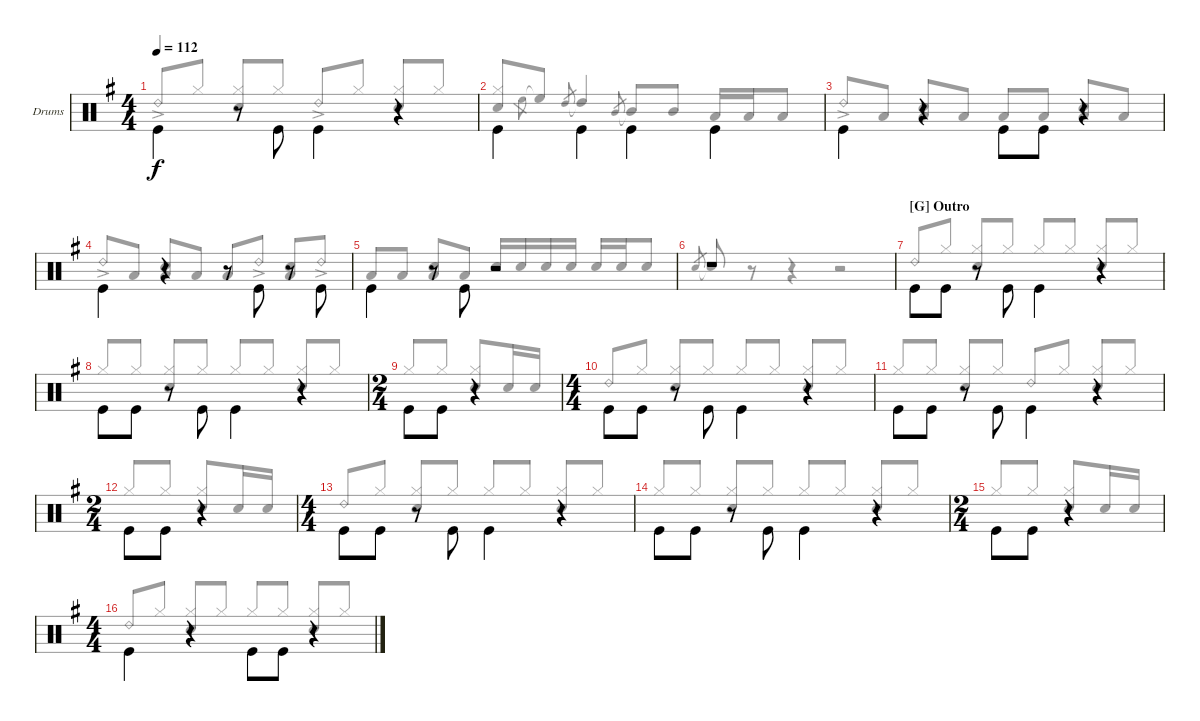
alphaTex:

\defaultSystemsLayout 4
\bracketExtendMode groupsimilarinstruments
\firstSystemTrackNameOrientation horizontal
\otherSystemsTrackNameOrientation horizontal
\track ("Drumkit" "Drums") {instrument percussion}
\staff {score}
\articulation defaults
\voice
\ts (4 4)
\tempo 112
\clef neutral
\scale
1.04288
\ks g "Kick (hit)".4{dy f beam invert}
r.8 "Kick (hit)".8{beam invert} "Kick (hit)".4{beam invert} r.4 |
\scale
0.957125 "Kick (hit)".4{beam invert} "Kick (hit)".4{beam invert} "Kick (hit)".4{beam invert} "Kick (hit)".4{beam invert} |
\scale
1.04288 "Kick (hit)".4{beam invert} r.4 "Kick (hit)".8{beam invert} "Kick (hit)".8 r.4 |
\scale
0.957125 "Kick (hit)".4{beam invert} r.4{beam invert} r.8 "Kick (hit)".8{beam invert} r.8 "Kick (hit)".8{beam invert} |
\scale
1.04288 "Kick (hit)".4{beam invert} r.8 "Kick (hit)".8{beam invert} r.2 |
\scale
0.957125 r.1 |
\section ("G" "Outro")
\scale
1.04288 "Kick (hit)".8{beam invert} "Kick (hit)".8 r.8 "Kick (hit)".8{beam invert} "Kick (hit)".4{beam invert} r.4 |
\scale
0.957125 "Kick (hit)".8{beam invert} "Kick (hit)".8 r.8 "Kick (hit)".8{beam invert} "Kick (hit)".4{beam invert} r.4 |
\ts (2 4)
\scale
1.04288 "Kick (hit)".8{beam invert} "Kick (hit)".8 r.4 |
\ts (4 4)
\scale
0.957125 "Kick (hit)".8{beam invert} "Kick (hit)".8 r.8 "Kick (hit)".8{beam invert} "Kick (hit)".4{beam invert} r.4 |
\scale
1.04288 "Kick (hit)".8{beam invert} "Kick (hit)".8 r.8 "Kick (hit)".8{beam invert} "Kick (hit)".4{beam invert} r.4 |
\ts (2 4)
\scale
0.957125 "Kick (hit)".8{beam invert} "Kick (hit)".8 r.4 |
\ts (4 4)
\scale
1.04288 "Kick (hit)".8{beam invert} "Kick (hit)".8 r.8 "Kick (hit)".8{beam invert} "Kick (hit)".4{beam invert} r.4 |
\scale
0.957125 "Kick (hit)".8{beam invert} "Kick (hit)".8 r.8 "Kick (hit)".8{beam invert} "Kick (hit)".4{beam invert} r.4 |
\ts (2 4)
\scale
1.04288 "Kick (hit)".8{beam invert} "Kick (hit)".8 r.4 |
\ts (4 4)
\scale
0.957125 "Kick (hit)".4{beam invert} r.4 "Kick (hit)".8{beam invert} "Kick (hit)".8 r.4
\voice
\clef neutral
\ottava regular
\simile none
\scale
1.04288
\ks g "Ride (bell) 2"{ac}.8{dy f beam invert} "Hi-Hat (closed)".8
("Hi-Hat (closed)" "Snare (hit) 2").8{beam invert} "Hi-Hat (closed)".8 "Ride (bell) 2"{ac}.8{beam invert} "Hi-Hat (closed)".8 ("Hi-Hat (closed)" "Snare (hit) 2").8{beam invert} "Hi-Hat (closed)".8 |
\scale
0.957125 ("Snare (hit) 2" "Hi-Hat (closed)").8{beam invert} "High Floor Tom (hit)".8{gr} "High Floor Tom (hit)"{t}.8 "High Tom (hit)".8{gr beam invert} "High Tom (hit)"{t}.4{beam invert} "Mid Tom (hit)".8{gr beam invert} "Mid Tom (hit)"{t}.8{beam invert} "Mid Tom (hit)".8 "Low Tom (hit)".16{beam invert} "Low Tom (hit)".16 "Low Tom (hit)".8 |
\scale
1.04288 "Ride (bell) 2"{ac}.8{beam invert} "Low Tom (hit)".8 ("Low Tom (hit)" "Snare (hit) 2").8{beam invert} "Low Tom (hit)".8 "Low Tom (hit)".8{beam invert} "Low Tom (hit)".8 ("Low Tom (hit)" "Snare (hit) 2").8{beam invert} "Low Tom (hit)".8 |
\scale
0.957125 "Ride (bell) 2"{ac}.8{beam invert} "Low Tom (hit)".8 ("Low Tom (hit)" "Snare (hit) 2").8{beam invert} "Low Tom (hit)".8 "Low Tom (hit)".8{beam invert} "Ride (bell) 2"{ac}.8 ("Low Tom (hit)" "Snare (hit) 2").8{beam invert} "Ride (bell) 2"{ac}.8 |
\scale
1.04288 "Low Tom (hit)".8{beam invert} "Low Tom (hit)".8 ("Low Tom (hit)" "Snare (hit) 2").8{beam invert} "Low Tom (hit)".8 "Snare (hit) 2".16{beam invert} "Snare (hit) 2".16 "Snare (hit) 2".16 "Snare (hit) 2".16 "Snare (hit) 2".16{beam invert} "Snare (hit) 2".16 "Snare (hit) 2".8 |
\scale
0.957125 "Snare (hit) 2".8{gr beam invert} "Snare (hit) 2"{t}.8{beam invert} r.8 r.4 r.2 |
\scale
1.04288 "Ride (bell) 2".8{beam invert} "Hi-Hat (closed)".8 ("Hi-Hat (closed)" "Snare (hit) 2").8{beam invert} "Hi-Hat (closed)".8 "Hi-Hat (closed)".8{beam invert} "Hi-Hat (closed)".8 ("Hi-Hat (closed)" "Snare (hit) 2").8{beam invert} "Hi-Hat (closed)".8 |
\scale
0.957125 "Hi-Hat (closed)".8{beam invert} "Hi-Hat (closed)".8 ("Hi-Hat (closed)" "Snare (hit) 2").8{beam invert} "Hi-Hat (closed)".8 "Hi-Hat (closed)".8{beam invert} "Hi-Hat (closed)".8 ("Hi-Hat (closed)" "Snare (hit) 2").8{beam invert} "Hi-Hat (closed)".8 |
\scale
1.04288 "Hi-Hat (closed)".8{beam invert} "Hi-Hat (closed)".8 ("Hi-Hat (closed)" "Snare (hit) 2").8{beam invert} "Snare (hit) 2".16 "Snare (hit) 2".16 |
\scale
0.957125 "Ride (bell) 2".8{beam invert} "Hi-Hat (closed)".8 ("Hi-Hat (closed)" "Snare (hit) 2").8{beam invert} "Hi-Hat (closed)".8 "Hi-Hat (closed)".8{beam invert} "Hi-Hat (closed)".8 ("Hi-Hat (closed)" "Snare (hit) 2").8{beam invert} "Hi-Hat (closed)".8 |
\scale
1.04288 "Hi-Hat (closed)".8{beam invert} "Hi-Hat (closed)".8 ("Hi-Hat (closed)" "Snare (hit) 2").8{beam invert} "Hi-Hat (closed)".8 "Ride (bell) 2".8{beam invert} "Hi-Hat (closed)".8 ("Hi-Hat (closed)" "Snare (hit) 2").8{beam invert} "Hi-Hat (closed)".8 |
\scale
0.957125 "Hi-Hat (closed)".8{beam invert} "Hi-Hat (closed)".8 ("Hi-Hat (closed)" "Snare (hit) 2").8{beam invert} "Snare (hit) 2".16 "Snare (hit) 2".16 |
\scale
1.04288 "Ride (bell) 2".8{beam invert} "Hi-Hat (closed)".8 ("Hi-Hat (closed)" "Snare (hit) 2").8{beam invert} "Hi-Hat (closed)".8 "Hi-Hat (closed)".8{beam invert} "Hi-Hat (closed)".8 ("Hi-Hat (closed)" "Snare (hit) 2").8{beam invert} "Hi-Hat (closed)".8 |
\scale
0.957125 "Hi-Hat (closed)".8{beam invert} "Hi-Hat (closed)".8 ("Hi-Hat (closed)" "Snare (hit) 2").8{beam invert} "Hi-Hat (closed)".8 "Hi-Hat (closed)".8{beam invert} "Hi-Hat (closed)".8 ("Hi-Hat (closed)" "Snare (hit) 2").8{beam invert} "Hi-Hat (closed)".8 |
\scale
1.04288 "Hi-Hat (closed)".8{beam invert} "Hi-Hat (closed)".8 ("Hi-Hat (closed)" "Snare (hit) 2").8{beam invert} "Snare (hit) 2".16 "Snare (hit) 2".16 |
\scale
0.957125 "Ride (bell) 2".8{beam invert} "Hi-Hat (closed)".8 ("Hi-Hat (closed)" "Snare (hit) 2").8{beam invert} "Hi-Hat (closed)".8 "Hi-Hat (closed)".8{beam invert} "Hi-Hat (closed)".8 ("Hi-Hat (closed)" "Snare (hit) 2").8{beam invert} "Hi-Hat (closed)".8
